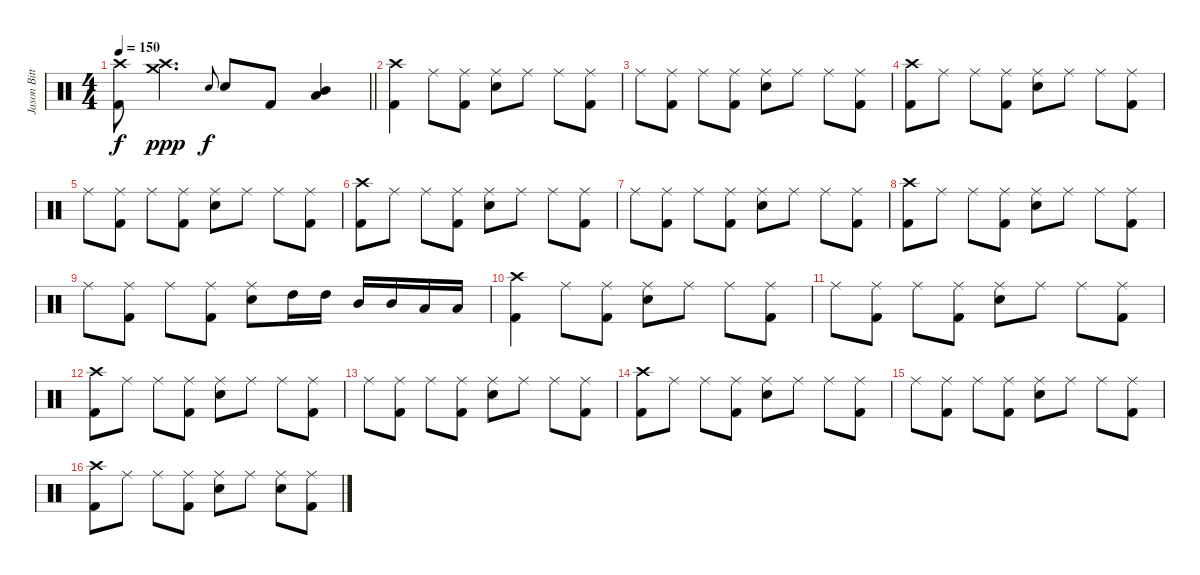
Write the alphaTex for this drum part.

\track ("Jason Bittner" "Jason Bitt") {instrument percussion}
\staff {score}
\articulation defaults
\ts (4 4)
\tempo 150
\clef neutral
\barLineRight lightlight
\ks c
("Crash high (hit)" "Kick (hit) 2").8{dy f} ("Crash medium (hit)" "Crash high (hit)").4{d dy ppp} "Electric Snare (hit)".8{gr onbeat dy f} "Electric Snare (hit)".8 "Kick (hit) 2".8 ("Mid Tom (hit)" "Low Tom (hit)").4 |
("Crash high (hit)" "Kick (hit) 2").4 "Ride (middle)".8 ("Ride (middle)" "Kick (hit) 2").8 ("Ride (middle)" "Electric Snare (hit)").8 "Ride (middle)".8 "Ride (middle)".8 ("Ride (middle)" "Kick (hit) 2").8 |
"Ride (middle)".8 ("Ride (middle)" "Kick (hit) 2").8 "Ride (middle)".8 ("Ride (middle)" "Kick (hit) 2").8 ("Ride (middle)" "Electric Snare (hit)").8 "Ride (middle)".8 "Ride (middle)".8 ("Ride (middle)" "Kick (hit) 2").8 |
("Crash high (hit)" "Kick (hit) 2").8 "Ride (middle)".8 "Ride (middle)".8 ("Ride (middle)" "Kick (hit) 2").8 ("Ride (middle)" "Electric Snare (hit)").8 "Ride (middle)".8 "Ride (middle)".8 ("Ride (middle)" "Kick (hit) 2").8 |
"Ride (middle)".8 ("Ride (middle)" "Kick (hit) 2").8 "Ride (middle)".8 ("Ride (middle)" "Kick (hit) 2").8 ("Ride (middle)" "Electric Snare (hit)").8 "Ride (middle)".8 "Ride (middle)".8 ("Ride (middle)" "Kick (hit) 2").8 |
("Crash high (hit)" "Kick (hit) 2").8 "Ride (middle)".8 "Ride (middle)".8 ("Ride (middle)" "Kick (hit) 2").8 ("Ride (middle)" "Electric Snare (hit)").8 "Ride (middle)".8 "Ride (middle)".8 ("Ride (middle)" "Kick (hit) 2").8 |
"Ride (middle)".8 ("Ride (middle)" "Kick (hit) 2").8 "Ride (middle)".8 ("Ride (middle)" "Kick (hit) 2").8 ("Ride (middle)" "Electric Snare (hit)").8 "Ride (middle)".8 "Ride (middle)".8 ("Ride (middle)" "Kick (hit) 2").8 |
("Crash high (hit)" "Kick (hit) 2").8 "Ride (middle)".8 "Ride (middle)".8 ("Ride (middle)" "Kick (hit) 2").8 ("Ride (middle)" "Electric Snare (hit)").8 "Ride (middle)".8 "Ride (middle)".8 ("Ride (middle)" "Kick (hit) 2").8 |
"Ride (middle)".8 ("Ride (middle)" "Kick (hit) 2").8 "Ride (middle)".8 ("Ride (middle)" "Kick (hit) 2").8 ("Ride (middle)" "Electric Snare (hit)").8 "High Tom (hit)".16 "High Tom (hit)".16 "Mid Tom (hit)".16 "Mid Tom (hit)".16 "Low Tom (hit)".16 "Low Tom (hit)".16 |
("Crash high (hit)" "Kick (hit) 2").4 "Ride (middle)".8 ("Ride (middle)" "Kick (hit) 2").8 ("Ride (middle)" "Electric Snare (hit)").8 "Ride (middle)".8 "Ride (middle)".8 ("Ride (middle)" "Kick (hit) 2").8 |
"Ride (middle)".8 ("Ride (middle)" "Kick (hit) 2").8 "Ride (middle)".8 ("Ride (middle)" "Kick (hit) 2").8 ("Ride (middle)" "Electric Snare (hit)").8 "Ride (middle)".8 "Ride (middle)".8 ("Ride (middle)" "Kick (hit) 2").8 |
("Crash high (hit)" "Kick (hit) 2").8 "Ride (middle)".8 "Ride (middle)".8 ("Ride (middle)" "Kick (hit) 2").8 ("Ride (middle)" "Electric Snare (hit)").8 "Ride (middle)".8 "Ride (middle)".8 ("Ride (middle)" "Kick (hit) 2").8 |
"Ride (middle)".8 ("Ride (middle)" "Kick (hit) 2").8 "Ride (middle)".8 ("Ride (middle)" "Kick (hit) 2").8 ("Ride (middle)" "Electric Snare (hit)").8 "Ride (middle)".8 "Ride (middle)".8 ("Ride (middle)" "Kick (hit) 2").8 |
("Crash high (hit)" "Kick (hit) 2").8 "Ride (middle)".8 "Ride (middle)".8 ("Ride (middle)" "Kick (hit) 2").8 ("Ride (middle)" "Electric Snare (hit)").8 "Ride (middle)".8 "Ride (middle)".8 ("Ride (middle)" "Kick (hit) 2").8 |
"Ride (middle)".8 ("Ride (middle)" "Kick (hit) 2").8 "Ride (middle)".8 ("Ride (middle)" "Kick (hit) 2").8 ("Ride (middle)" "Electric Snare (hit)").8 "Ride (middle)".8 "Ride (middle)".8 ("Ride (middle)" "Kick (hit) 2").8 |
("Crash high (hit)" "Kick (hit) 2").8 "Ride (middle)".8 "Ride (middle)".8 ("Ride (middle)" "Kick (hit) 2").8 ("Ride (middle)" "Electric Snare (hit)").8 "Ride (middle)".8 ("Ride (middle)" "Electric Snare (hit)").8 ("Ride (middle)" "Kick (hit) 2").8
